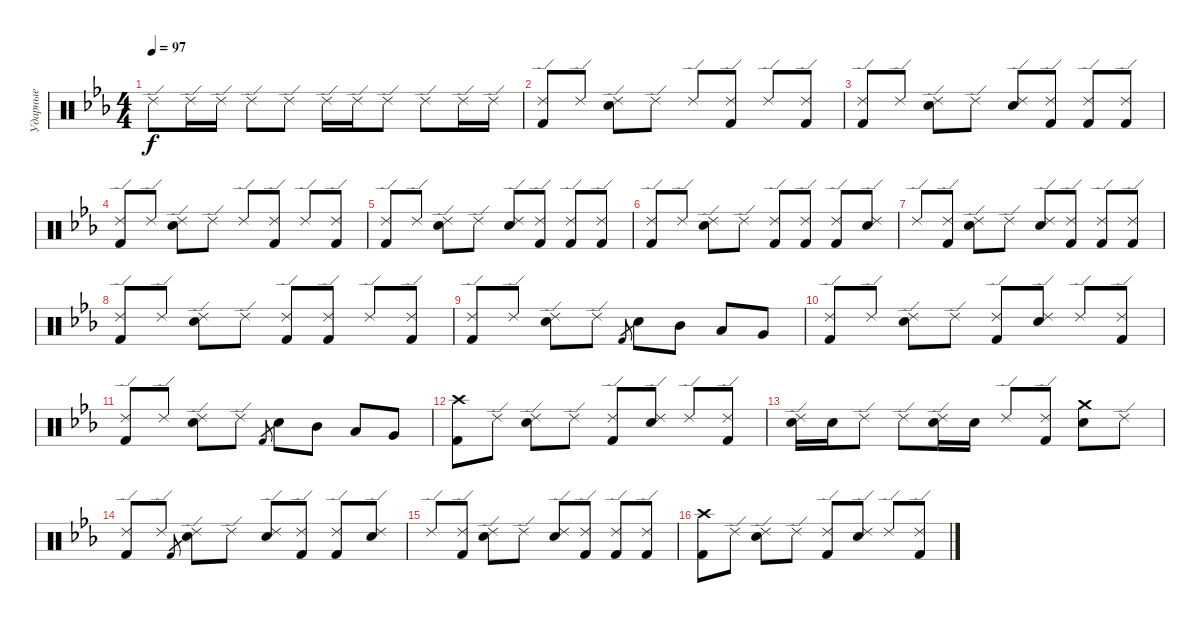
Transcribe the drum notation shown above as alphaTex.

\track ("Ударные" "Ударные") {instrument percussion}
\staff {score}
\articulation defaults
\ts (4 4)
\tempo 97
\clef neutral
\ks eb "Ride (edge) 2".8{dy f} "Ride (edge) 2".16 "Ride (edge) 2".16 "Ride (edge) 2".8 "Ride (edge) 2".8 "Ride (edge) 2".16 "Ride (edge) 2".16 "Ride (edge) 2".8 "Ride (edge) 2".8 "Ride (edge) 2".16 "Ride (edge) 2".16
|
("Ride (edge) 2" "Kick (hit) 2").8 "Ride (edge) 2".8 ("Ride (edge) 2" "Electric Snare (hit)").8 "Ride (edge) 2".8 "Ride (edge) 2".8 ("Ride (edge) 2" "Kick (hit) 2").8 "Ride (edge) 2".8 ("Ride (edge) 2" "Kick (hit) 2").8 |
("Ride (edge) 2" "Kick (hit) 2").8 "Ride (edge) 2".8 ("Ride (edge) 2" "Electric Snare (hit)").8 "Ride (edge) 2".8 ("Ride (edge) 2" "Electric Snare (hit)").8 ("Ride (edge) 2" "Kick (hit) 2").8 ("Ride (edge) 2" "Kick (hit) 2").8 ("Ride (edge) 2" "Kick (hit) 2").8 |
("Ride (edge) 2" "Kick (hit) 2").8 "Ride (edge) 2".8 ("Ride (edge) 2" "Electric Snare (hit)").8 "Ride (edge) 2".8 "Ride (edge) 2".8 ("Ride (edge) 2" "Kick (hit) 2").8 "Ride (edge) 2".8 ("Ride (edge) 2" "Kick (hit) 2").8 |
("Ride (edge) 2" "Kick (hit) 2").8 "Ride (edge) 2".8 ("Ride (edge) 2" "Electric Snare (hit)").8 "Ride (edge) 2".8 ("Ride (edge) 2" "Electric Snare (hit)").8 ("Ride (edge) 2" "Kick (hit) 2").8 ("Ride (edge) 2" "Kick (hit) 2").8 ("Ride (edge) 2" "Kick (hit) 2").8 |
("Ride (edge) 2" "Kick (hit) 2").8 "Ride (edge) 2".8 ("Ride (edge) 2" "Electric Snare (hit)").8 "Ride (edge) 2".8 ("Ride (edge) 2" "Kick (hit) 2").8 ("Ride (edge) 2" "Kick (hit) 2").8 ("Ride (edge) 2" "Kick (hit) 2").8 ("Ride (edge) 2" "Electric Snare (hit)").8 |
"Ride (edge) 2".8 ("Ride (edge) 2" "Kick (hit) 2").8 ("Ride (edge) 2" "Electric Snare (hit)").8 "Ride (edge) 2".8 ("Ride (edge) 2" "Electric Snare (hit)").8 ("Ride (edge) 2" "Kick (hit) 2").8 ("Ride (edge) 2" "Kick (hit) 2").8 ("Ride (edge) 2" "Kick (hit) 2").8 |
("Ride (edge) 2" "Kick (hit) 2").8 "Ride (edge) 2".8 ("Ride (edge) 2" "Electric Snare (hit)").8 "Ride (edge) 2".8 ("Ride (edge) 2" "Kick (hit) 2").8 ("Ride (edge) 2" "Kick (hit) 2").8 "Ride (edge) 2".8 ("Ride (edge) 2" "Kick (hit) 2").8 |
("Ride (edge) 2" "Kick (hit) 2").8 "Ride (edge) 2".8 ("Ride (edge) 2" "Electric Snare (hit)").8 "Ride (edge) 2".8 "Kick (hit) 2".8{gr} "Electric Snare (hit)".8 "Mid Tom (hit)".8 "Low Tom (hit)".8 "Very Low Tom (hit)".8 |
("Ride (edge) 2" "Kick (hit) 2").8 "Ride (edge) 2".8 ("Ride (edge) 2" "Electric Snare (hit)").8 "Ride (edge) 2".8 ("Ride (edge) 2" "Kick (hit) 2").8 ("Ride (edge) 2" "Electric Snare (hit)").8 "Ride (edge) 2".8 ("Ride (edge) 2" "Kick (hit) 2").8 |
("Ride (edge) 2" "Kick (hit) 2").8 "Ride (edge) 2".8 ("Ride (edge) 2" "Electric Snare (hit)").8 "Ride (edge) 2".8 "Kick (hit) 2".8{gr} "Electric Snare (hit)".8 "Mid Tom (hit)".8 "Low Tom (hit)".8 "Very Low Tom (hit)".8 |
("Crash high (hit)" "Kick (hit) 2").8 "Ride (edge) 2".8 ("Ride (edge) 2" "Electric Snare (hit)").8 "Ride (edge) 2".8 ("Ride (edge) 2" "Kick (hit) 2").8 ("Ride (edge) 2" "Electric Snare (hit)").8 "Ride (edge) 2".8 ("Ride (edge) 2" "Kick (hit) 2").8 |
("Ride (edge) 2" "Electric Snare (hit)").16 "Electric Snare (hit)".16 "Ride (edge) 2".8 "Ride (edge) 2".8 ("Ride (edge) 2" "Electric Snare (hit)").16 "Electric Snare (hit)".16 "Ride (edge) 2".8 ("Ride (edge) 2" "Kick (hit) 2").8 ("Crash medium (hit)" "Electric Snare (hit)").8 "Ride (edge) 2".8 |
("Ride (edge) 2" "Kick (hit) 2").8 "Ride (edge) 2".8 "Kick (hit) 2".8{gr} ("Ride (edge) 2" "Electric Snare (hit)").8 "Ride (edge) 2".8 ("Ride (edge) 2" "Electric Snare (hit)").8 ("Ride (edge) 2" "Kick (hit) 2").8 ("Ride (edge) 2" "Kick (hit) 2").8 ("Ride (edge) 2" "Electric Snare (hit)").8 |
"Ride (edge) 2".8 ("Ride (edge) 2" "Kick (hit) 2").8 ("Ride (edge) 2" "Electric Snare (hit)").8 "Ride (edge) 2".8 ("Ride (edge) 2" "Electric Snare (hit)").8 ("Ride (edge) 2" "Kick (hit) 2").8 ("Ride (edge) 2" "Kick (hit) 2").8 ("Ride (edge) 2" "Kick (hit) 2").8 |
("Crash high (hit)" "Kick (hit) 2").8 "Ride (edge) 2".8 ("Ride (edge) 2" "Electric Snare (hit)").8 "Ride (edge) 2".8 ("Ride (edge) 2" "Kick (hit) 2").8 ("Ride (edge) 2" "Electric Snare (hit)").8 "Ride (edge) 2".8 ("Ride (edge) 2" "Kick (hit) 2").8
